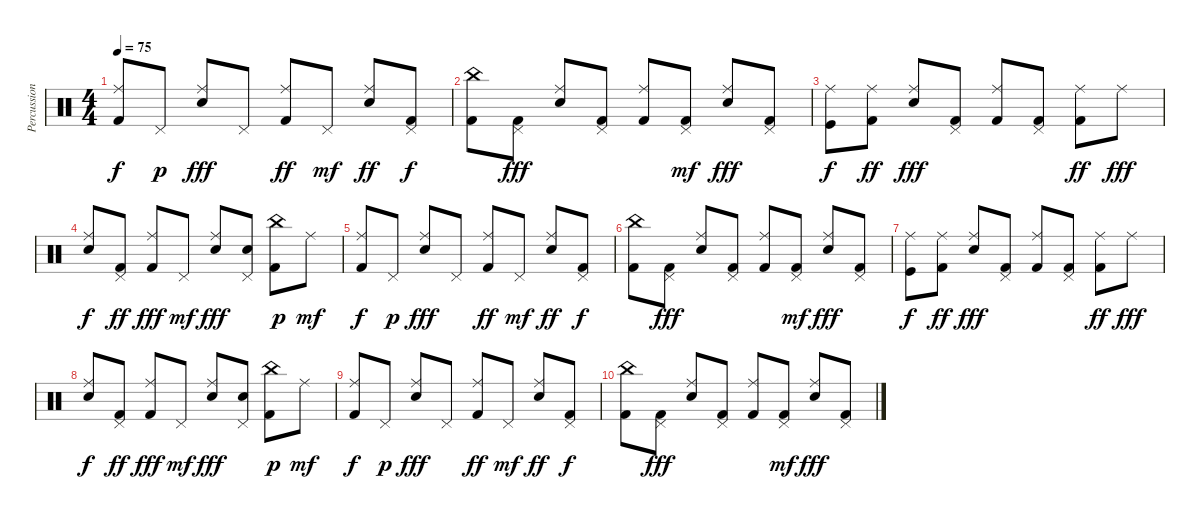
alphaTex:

\track ("Percussion" "Percussion") {instrument percussion}
\staff {score}
\articulation defaults
\ts (4 4)
\tempo 75
\clef neutral
\ks c
("Kick (hit) 2" "Ride (middle)").8{dy f} "Pedal Hi-Hat (hit)".8{dy p} ("Snare (hit) 2" "Ride (middle)").8{dy fff} "Pedal Hi-Hat (hit)".8 ("Kick (hit) 2" "Ride (middle)").8{dy ff} "Pedal Hi-Hat (hit)".8{dy mf} ("Snare (hit) 2" "Ride (middle)").8{dy ff} ("Kick (hit) 2" "Pedal Hi-Hat (hit)").8{dy f} |
("Kick (hit) 2" "China (hit)").8 ("Kick (hit) 2" "Pedal Hi-Hat (hit)").8{dy fff} ("Snare (hit) 2" "Ride (middle)").8 ("Kick (hit) 2" "Pedal Hi-Hat (hit)").8 ("Kick (hit) 2" "Ride (middle)").8 ("Kick (hit) 2" "Pedal Hi-Hat (hit)").8{dy mf} ("Snare (hit) 2" "Ride (middle)").8{dy fff} ("Kick (hit) 2" "Pedal Hi-Hat (hit)").8 |
("Kick (hit)" "Ride (middle)").8{dy f} ("Kick (hit) 2" "Ride (middle)").8{dy ff} ("Snare (hit) 2" "Ride (middle)").8{dy fff} ("Kick (hit) 2" "Pedal Hi-Hat (hit)").8 ("Kick (hit) 2" "Ride (middle)").8 ("Kick (hit) 2" "Pedal Hi-Hat (hit)").8 ("Kick (hit) 2" "Ride (middle)").8{dy ff} "Ride (middle)".8{dy fff} |
("Snare (hit) 2" "Ride (middle)").8{dy f} ("Kick (hit) 2" "Pedal Hi-Hat (hit)").8{dy ff} ("Kick (hit) 2" "Ride (middle)").8{dy fff} "Pedal Hi-Hat (hit)".8{dy mf} ("Snare (hit) 2" "Ride (middle)").8{dy fff} ("Snare (hit) 2" "Pedal Hi-Hat (hit)").8 ("Kick (hit) 2" "China (hit)").8{dy p} "Ride (middle)".8{dy mf} |
("Kick (hit) 2" "Ride (middle)").8{dy f} "Pedal Hi-Hat (hit)".8{dy p} ("Snare (hit) 2" "Ride (middle)").8{dy fff} "Pedal Hi-Hat (hit)".8 ("Kick (hit) 2" "Ride (middle)").8{dy ff} "Pedal Hi-Hat (hit)".8{dy mf} ("Snare (hit) 2" "Ride (middle)").8{dy ff} ("Kick (hit) 2" "Pedal Hi-Hat (hit)").8{dy f} |
("Kick (hit) 2" "China (hit)").8 ("Kick (hit) 2" "Pedal Hi-Hat (hit)").8{dy fff} ("Snare (hit) 2" "Ride (middle)").8 ("Kick (hit) 2" "Pedal Hi-Hat (hit)").8 ("Kick (hit) 2" "Ride (middle)").8 ("Kick (hit) 2" "Pedal Hi-Hat (hit)").8{dy mf} ("Snare (hit) 2" "Ride (middle)").8{dy fff} ("Kick (hit) 2" "Pedal Hi-Hat (hit)").8 |
("Kick (hit)" "Ride (middle)").8{dy f} ("Kick (hit) 2" "Ride (middle)").8{dy ff} ("Snare (hit) 2" "Ride (middle)").8{dy fff} ("Kick (hit) 2" "Pedal Hi-Hat (hit)").8 ("Kick (hit) 2" "Ride (middle)").8 ("Kick (hit) 2" "Pedal Hi-Hat (hit)").8 ("Kick (hit) 2" "Ride (middle)").8{dy ff} "Ride (middle)".8{dy fff} |
("Snare (hit) 2" "Ride (middle)").8{dy f} ("Kick (hit) 2" "Pedal Hi-Hat (hit)").8{dy ff} ("Kick (hit) 2" "Ride (middle)").8{dy fff} "Pedal Hi-Hat (hit)".8{dy mf} ("Snare (hit) 2" "Ride (middle)").8{dy fff} ("Snare (hit) 2" "Pedal Hi-Hat (hit)").8 ("Kick (hit) 2" "China (hit)").8{dy p} "Ride (middle)".8{dy mf} |
("Kick (hit) 2" "Ride (middle)").8{dy f} "Pedal Hi-Hat (hit)".8{dy p} ("Snare (hit) 2" "Ride (middle)").8{dy fff} "Pedal Hi-Hat (hit)".8 ("Kick (hit) 2" "Ride (middle)").8{dy ff} "Pedal Hi-Hat (hit)".8{dy mf} ("Snare (hit) 2" "Ride (middle)").8{dy ff} ("Kick (hit) 2" "Pedal Hi-Hat (hit)").8{dy f} |
("Kick (hit) 2" "China (hit)").8 ("Kick (hit) 2" "Pedal Hi-Hat (hit)").8{dy fff} ("Snare (hit) 2" "Ride (middle)").8 ("Kick (hit) 2" "Pedal Hi-Hat (hit)").8 ("Kick (hit) 2" "Ride (middle)").8 ("Kick (hit) 2" "Pedal Hi-Hat (hit)").8{dy mf} ("Snare (hit) 2" "Ride (middle)").8{dy fff} ("Kick (hit) 2" "Pedal Hi-Hat (hit)").8
